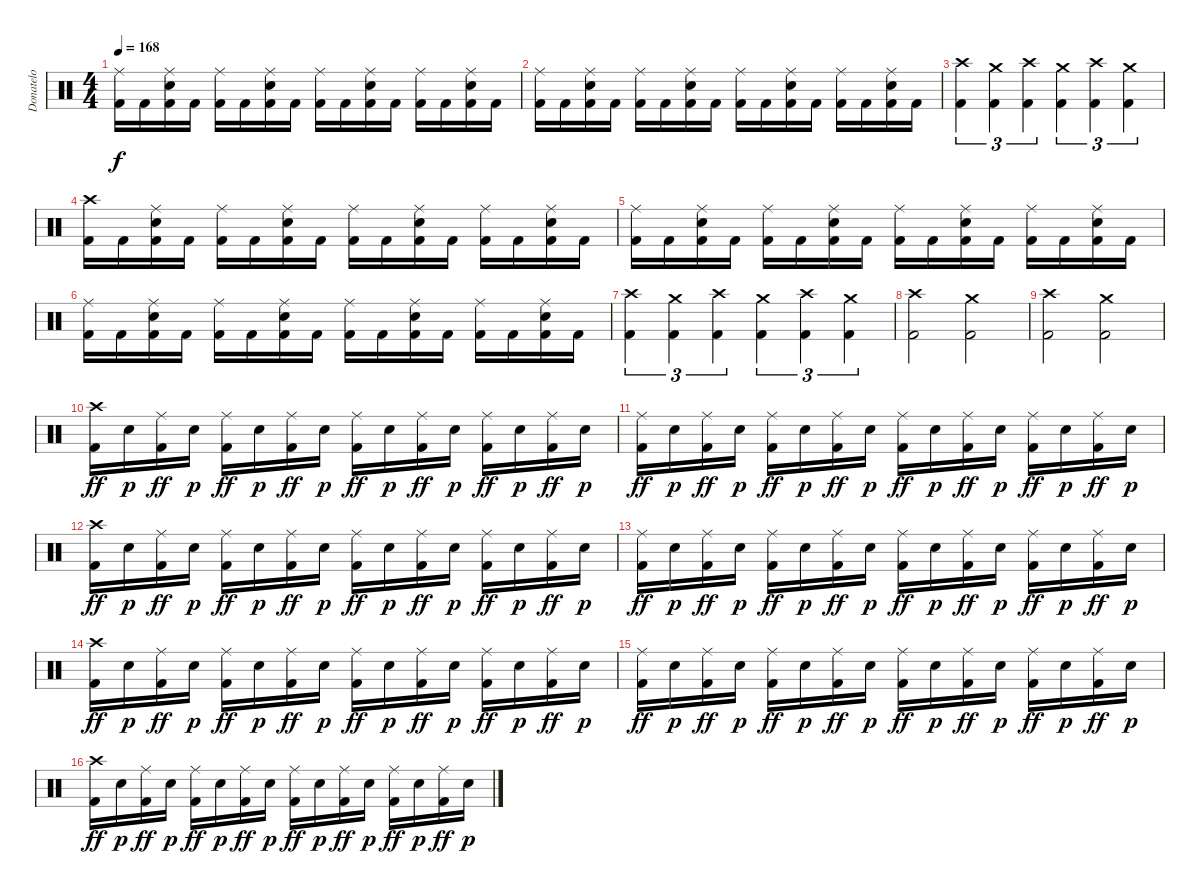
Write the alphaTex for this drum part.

\track ("Donatelo" "Donatelo") {instrument percussion}
\staff {score}
\articulation defaults
\ts (4 4)
\tempo 168
\clef neutral
\ks c
("Kick (hit) 2" "Ride (middle)").16{dy f} "Kick (hit) 2".16 ("Kick (hit) 2" "Electric Snare (hit)" "Ride (middle)").16 "Kick (hit) 2".16 ("Kick (hit) 2" "Ride (middle)").16 "Kick (hit) 2".16 ("Kick (hit) 2" "Electric Snare (hit)" "Ride (middle)").16 "Kick (hit) 2".16 ("Kick (hit) 2" "Ride (middle)").16 "Kick (hit) 2".16 ("Kick (hit) 2" "Electric Snare (hit)" "Ride (middle)").16 "Kick (hit) 2".16 ("Kick (hit) 2" "Ride (middle)").16 "Kick (hit) 2".16 ("Kick (hit) 2" "Electric Snare (hit)" "Ride (middle)").16 "Kick (hit) 2".16 |
("Kick (hit) 2" "Ride (middle)").16 "Kick (hit) 2".16 ("Kick (hit) 2" "Electric Snare (hit)" "Ride (middle)").16 "Kick (hit) 2".16 ("Kick (hit) 2" "Ride (middle)").16 "Kick (hit) 2".16 ("Kick (hit) 2" "Electric Snare (hit)" "Ride (middle)").16 "Kick (hit) 2".16 ("Kick (hit) 2" "Ride (middle)").16 "Kick (hit) 2".16 ("Kick (hit) 2" "Electric Snare (hit)" "Ride (middle)").16 "Kick (hit) 2".16 ("Kick (hit) 2" "Ride (middle)").16 "Kick (hit) 2".16 ("Kick (hit) 2" "Electric Snare (hit)" "Ride (middle)").16 "Kick (hit) 2".16 |
("Kick (hit) 2" "Crash high (hit)").4{tu (3 2)} ("Kick (hit) 2" "Crash medium (hit)").4{tu (3 2)} ("Kick (hit) 2" "Crash high (hit)").4{tu (3 2)} ("Kick (hit) 2" "Crash medium (hit)").4{tu (3 2)} ("Kick (hit) 2" "Crash high (hit)").4{tu (3 2)} ("Kick (hit) 2" "Crash medium (hit)").4{tu (3 2)} |
("Kick (hit) 2" "Crash high (hit)").16 "Kick (hit) 2".16 ("Kick (hit) 2" "Electric Snare (hit)" "Ride (middle)").16 "Kick (hit) 2".16 ("Kick (hit) 2" "Ride (middle)").16 "Kick (hit) 2".16 ("Kick (hit) 2" "Electric Snare (hit)" "Ride (middle)").16 "Kick (hit) 2".16 ("Kick (hit) 2" "Ride (middle)").16 "Kick (hit) 2".16 ("Kick (hit) 2" "Electric Snare (hit)" "Ride (middle)").16 "Kick (hit) 2".16 ("Kick (hit) 2" "Ride (middle)").16 "Kick (hit) 2".16 ("Kick (hit) 2" "Electric Snare (hit)" "Ride (middle)").16 "Kick (hit) 2".16 |
("Kick (hit) 2" "Ride (middle)").16 "Kick (hit) 2".16 ("Kick (hit) 2" "Electric Snare (hit)" "Ride (middle)").16 "Kick (hit) 2".16 ("Kick (hit) 2" "Ride (middle)").16 "Kick (hit) 2".16 ("Kick (hit) 2" "Electric Snare (hit)" "Ride (middle)").16 "Kick (hit) 2".16 ("Kick (hit) 2" "Ride (middle)").16 "Kick (hit) 2".16 ("Kick (hit) 2" "Electric Snare (hit)" "Ride (middle)").16 "Kick (hit) 2".16 ("Kick (hit) 2" "Ride (middle)").16 "Kick (hit) 2".16 ("Kick (hit) 2" "Electric Snare (hit)" "Ride (middle)").16 "Kick (hit) 2".16 |
("Kick (hit) 2" "Ride (middle)").16 "Kick (hit) 2".16 ("Kick (hit) 2" "Electric Snare (hit)" "Ride (middle)").16 "Kick (hit) 2".16 ("Kick (hit) 2" "Ride (middle)").16 "Kick (hit) 2".16 ("Kick (hit) 2" "Electric Snare (hit)" "Ride (middle)").16 "Kick (hit) 2".16 ("Kick (hit) 2" "Ride (middle)").16 "Kick (hit) 2".16 ("Kick (hit) 2" "Electric Snare (hit)" "Ride (middle)").16 "Kick (hit) 2".16 ("Kick (hit) 2" "Ride (middle)").16 "Kick (hit) 2".16 ("Kick (hit) 2" "Electric Snare (hit)" "Ride (middle)").16 "Kick (hit) 2".16 |
("Kick (hit) 2" "Crash high (hit)").4{tu (3 2)} ("Kick (hit) 2" "Crash medium (hit)").4{tu (3 2)} ("Kick (hit) 2" "Crash high (hit)").4{tu (3 2)} ("Kick (hit) 2" "Crash medium (hit)").4{tu (3 2)} ("Kick (hit) 2" "Crash high (hit)").4{tu (3 2)} ("Kick (hit) 2" "Crash medium (hit)").4{tu (3 2)} |
("Kick (hit) 2" "Crash high (hit)").2 ("Kick (hit) 2" "Crash medium (hit)").2 |
("Kick (hit) 2" "Crash high (hit)").2 ("Kick (hit) 2" "Crash medium (hit)").2 |
("Kick (hit) 2" "Crash high (hit)").16{dy ff} "Electric Snare (hit)".16{dy p} ("Kick (hit) 2" "Ride (middle)").16{dy ff} "Electric Snare (hit)".16{dy p} ("Kick (hit) 2" "Ride (middle)").16{dy ff} "Electric Snare (hit)".16{dy p} ("Kick (hit) 2" "Ride (middle)").16{dy ff} "Electric Snare (hit)".16{dy p} ("Kick (hit) 2" "Ride (middle)").16{dy ff} "Electric Snare (hit)".16{dy p} ("Kick (hit) 2" "Ride (middle)").16{dy ff} "Electric Snare (hit)".16{dy p} ("Kick (hit) 2" "Ride (middle)").16{dy ff} "Electric Snare (hit)".16{dy p} ("Kick (hit) 2" "Ride (middle)").16{dy ff} "Electric Snare (hit)".16{dy p} |
("Kick (hit) 2" "Ride (middle)").16{dy ff} "Electric Snare (hit)".16{dy p} ("Kick (hit) 2" "Ride (middle)").16{dy ff} "Electric Snare (hit)".16{dy p} ("Kick (hit) 2" "Ride (middle)").16{dy ff} "Electric Snare (hit)".16{dy p} ("Kick (hit) 2" "Ride (middle)").16{dy ff} "Electric Snare (hit)".16{dy p} ("Kick (hit) 2" "Ride (middle)").16{dy ff} "Electric Snare (hit)".16{dy p} ("Kick (hit) 2" "Ride (middle)").16{dy ff} "Electric Snare (hit)".16{dy p} ("Kick (hit) 2" "Ride (middle)").16{dy ff} "Electric Snare (hit)".16{dy p} ("Kick (hit) 2" "Ride (middle)").16{dy ff} "Electric Snare (hit)".16{dy p} |
("Kick (hit) 2" "Crash high (hit)").16{dy ff} "Electric Snare (hit)".16{dy p} ("Kick (hit) 2" "Ride (middle)").16{dy ff} "Electric Snare (hit)".16{dy p} ("Kick (hit) 2" "Ride (middle)").16{dy ff} "Electric Snare (hit)".16{dy p} ("Kick (hit) 2" "Ride (middle)").16{dy ff} "Electric Snare (hit)".16{dy p} ("Kick (hit) 2" "Ride (middle)").16{dy ff} "Electric Snare (hit)".16{dy p} ("Kick (hit) 2" "Ride (middle)").16{dy ff} "Electric Snare (hit)".16{dy p} ("Kick (hit) 2" "Ride (middle)").16{dy ff} "Electric Snare (hit)".16{dy p} ("Kick (hit) 2" "Ride (middle)").16{dy ff} "Electric Snare (hit)".16{dy p} |
("Kick (hit) 2" "Ride (middle)").16{dy ff} "Electric Snare (hit)".16{dy p} ("Kick (hit) 2" "Ride (middle)").16{dy ff} "Electric Snare (hit)".16{dy p} ("Kick (hit) 2" "Ride (middle)").16{dy ff} "Electric Snare (hit)".16{dy p} ("Kick (hit) 2" "Ride (middle)").16{dy ff} "Electric Snare (hit)".16{dy p} ("Kick (hit) 2" "Ride (middle)").16{dy ff} "Electric Snare (hit)".16{dy p} ("Kick (hit) 2" "Ride (middle)").16{dy ff} "Electric Snare (hit)".16{dy p} ("Kick (hit) 2" "Ride (middle)").16{dy ff} "Electric Snare (hit)".16{dy p} ("Kick (hit) 2" "Ride (middle)").16{dy ff} "Electric Snare (hit)".16{dy p} |
("Kick (hit) 2" "Crash high (hit)").16{dy ff} "Electric Snare (hit)".16{dy p} ("Kick (hit) 2" "Ride (middle)").16{dy ff} "Electric Snare (hit)".16{dy p} ("Kick (hit) 2" "Ride (middle)").16{dy ff} "Electric Snare (hit)".16{dy p} ("Kick (hit) 2" "Ride (middle)").16{dy ff} "Electric Snare (hit)".16{dy p} ("Kick (hit) 2" "Ride (middle)").16{dy ff} "Electric Snare (hit)".16{dy p} ("Kick (hit) 2" "Ride (middle)").16{dy ff} "Electric Snare (hit)".16{dy p} ("Kick (hit) 2" "Ride (middle)").16{dy ff} "Electric Snare (hit)".16{dy p} ("Kick (hit) 2" "Ride (middle)").16{dy ff} "Electric Snare (hit)".16{dy p} |
("Kick (hit) 2" "Ride (middle)").16{dy ff} "Electric Snare (hit)".16{dy p} ("Kick (hit) 2" "Ride (middle)").16{dy ff} "Electric Snare (hit)".16{dy p} ("Kick (hit) 2" "Ride (middle)").16{dy ff} "Electric Snare (hit)".16{dy p} ("Kick (hit) 2" "Ride (middle)").16{dy ff} "Electric Snare (hit)".16{dy p} ("Kick (hit) 2" "Ride (middle)").16{dy ff} "Electric Snare (hit)".16{dy p} ("Kick (hit) 2" "Ride (middle)").16{dy ff} "Electric Snare (hit)".16{dy p} ("Kick (hit) 2" "Ride (middle)").16{dy ff} "Electric Snare (hit)".16{dy p} ("Kick (hit) 2" "Ride (middle)").16{dy ff} "Electric Snare (hit)".16{dy p} |
("Kick (hit) 2" "Crash high (hit)").16{dy ff} "Electric Snare (hit)".16{dy p} ("Kick (hit) 2" "Ride (middle)").16{dy ff} "Electric Snare (hit)".16{dy p} ("Kick (hit) 2" "Ride (middle)").16{dy ff} "Electric Snare (hit)".16{dy p} ("Kick (hit) 2" "Ride (middle)").16{dy ff} "Electric Snare (hit)".16{dy p} ("Kick (hit) 2" "Ride (middle)").16{dy ff} "Electric Snare (hit)".16{dy p} ("Kick (hit) 2" "Ride (middle)").16{dy ff} "Electric Snare (hit)".16{dy p} ("Kick (hit) 2" "Ride (middle)").16{dy ff} "Electric Snare (hit)".16{dy p} ("Kick (hit) 2" "Ride (middle)").16{dy ff} "Electric Snare (hit)".16{dy p}
